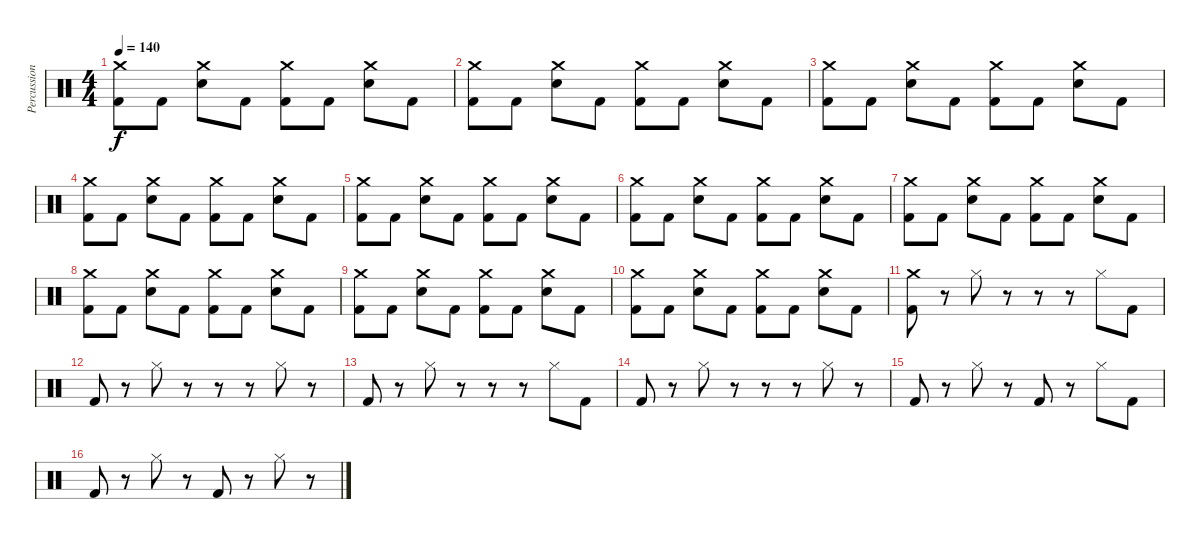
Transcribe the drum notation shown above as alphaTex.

\track ("Percussion" "Percussion") {instrument percussion}
\staff {score}
\articulation defaults
\ts (4 4)
\tempo 140
\clef neutral
\ks c
("Crash medium (hit)" "Kick (hit) 2").8{dy f} "Kick (hit) 2".8 ("Crash medium (hit)" "Electric Snare (hit)").8 "Kick (hit) 2".8 ("Crash medium (hit)" "Kick (hit) 2").8 "Kick (hit) 2".8 ("Crash medium (hit)" "Electric Snare (hit)").8 "Kick (hit) 2".8 |
("Crash medium (hit)" "Kick (hit) 2").8 "Kick (hit) 2".8 ("Crash medium (hit)" "Electric Snare (hit)").8 "Kick (hit) 2".8 ("Crash medium (hit)" "Kick (hit) 2").8 "Kick (hit) 2".8 ("Crash medium (hit)" "Electric Snare (hit)").8 "Kick (hit) 2".8 |
("Crash medium (hit)" "Kick (hit) 2").8 "Kick (hit) 2".8 ("Crash medium (hit)" "Electric Snare (hit)").8 "Kick (hit) 2".8 ("Crash medium (hit)" "Kick (hit) 2").8 "Kick (hit) 2".8 ("Crash medium (hit)" "Electric Snare (hit)").8 "Kick (hit) 2".8 |
("Crash medium (hit)" "Kick (hit) 2").8 "Kick (hit) 2".8 ("Crash medium (hit)" "Electric Snare (hit)").8 "Kick (hit) 2".8 ("Crash medium (hit)" "Kick (hit) 2").8 "Kick (hit) 2".8 ("Crash medium (hit)" "Electric Snare (hit)").8 "Kick (hit) 2".8 |
("Crash medium (hit)" "Kick (hit) 2").8 "Kick (hit) 2".8 ("Crash medium (hit)" "Electric Snare (hit)").8 "Kick (hit) 2".8 ("Crash medium (hit)" "Kick (hit) 2").8 "Kick (hit) 2".8 ("Crash medium (hit)" "Electric Snare (hit)").8 "Kick (hit) 2".8 |
("Crash medium (hit)" "Kick (hit) 2").8 "Kick (hit) 2".8 ("Crash medium (hit)" "Electric Snare (hit)").8 "Kick (hit) 2".8 ("Crash medium (hit)" "Kick (hit) 2").8 "Kick (hit) 2".8 ("Crash medium (hit)" "Electric Snare (hit)").8 "Kick (hit) 2".8 |
("Crash medium (hit)" "Kick (hit) 2").8 "Kick (hit) 2".8 ("Crash medium (hit)" "Electric Snare (hit)").8 "Kick (hit) 2".8 ("Crash medium (hit)" "Kick (hit) 2").8 "Kick (hit) 2".8 ("Crash medium (hit)" "Electric Snare (hit)").8 "Kick (hit) 2".8 |
("Crash medium (hit)" "Kick (hit) 2").8 "Kick (hit) 2".8 ("Crash medium (hit)" "Electric Snare (hit)").8 "Kick (hit) 2".8 ("Crash medium (hit)" "Kick (hit) 2").8 "Kick (hit) 2".8 ("Crash medium (hit)" "Electric Snare (hit)").8 "Kick (hit) 2".8 |
("Crash medium (hit)" "Kick (hit) 2").8 "Kick (hit) 2".8 ("Crash medium (hit)" "Electric Snare (hit)").8 "Kick (hit) 2".8 ("Crash medium (hit)" "Kick (hit) 2").8 "Kick (hit) 2".8 ("Crash medium (hit)" "Electric Snare (hit)").8 "Kick (hit) 2".8 |
("Crash medium (hit)" "Kick (hit) 2").8 "Kick (hit) 2".8 ("Crash medium (hit)" "Electric Snare (hit)").8 "Kick (hit) 2".8 ("Crash medium (hit)" "Kick (hit) 2").8 "Kick (hit) 2".8 ("Crash medium (hit)" "Electric Snare (hit)").8 "Kick (hit) 2".8 |
("Crash medium (hit)" "Kick (hit) 2").8 r.8 "Hi-Hat (closed)".8 r.8 r.8 r.8 "Hi-Hat (closed)".8 "Kick (hit) 2".8 |
"Kick (hit) 2".8 r.8 "Hi-Hat (closed)".8 r.8 r.8 r.8 "Hi-Hat (closed)".8 r.8 |
"Kick (hit) 2".8 r.8 "Hi-Hat (closed)".8 r.8 r.8 r.8 "Hi-Hat (closed)".8 "Kick (hit) 2".8 |
"Kick (hit) 2".8 r.8 "Hi-Hat (closed)".8 r.8 r.8 r.8 "Hi-Hat (closed)".8 r.8 |
"Kick (hit) 2".8 r.8 "Hi-Hat (closed)".8 r.8 "Kick (hit) 2".8 r.8 "Hi-Hat (closed)".8 "Kick (hit) 2".8 |
"Kick (hit) 2".8 r.8 "Hi-Hat (closed)".8 r.8 "Kick (hit) 2".8 r.8 "Hi-Hat (closed)".8 r.8
